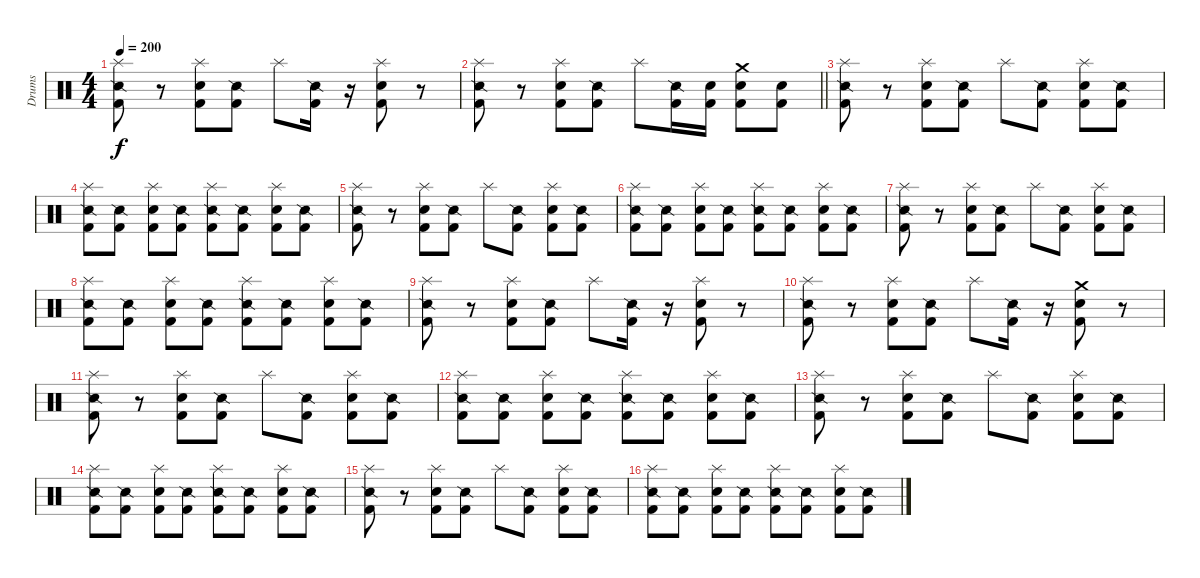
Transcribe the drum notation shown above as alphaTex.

\track ("Drums" "Drums") {instrument percussion}
\staff {score}
\articulation defaults
\ts (4 4)
\tempo 200
\clef neutral
\ks c
("Splash (hit)" "Snare (side stick) 2" "Kick (hit) 2").8{dy f} r.8 ("Splash (hit)" "Snare (hit) 2" "Kick (hit) 2").8 ("Snare (side stick) 2" "Kick (hit) 2").8 "Splash (hit)".8 ("Snare (side stick) 2" "Kick (hit) 2").16 r.16 ("Splash (hit)" "Snare (hit) 2" "Kick (hit) 2").8 r.8 |
\barLineRight lightlight
("Splash (hit)" "Snare (side stick) 2" "Kick (hit) 2").8 r.8 ("Splash (hit)" "Snare (hit) 2" "Kick (hit) 2").8 ("Snare (side stick) 2" "Kick (hit) 2").8 "Splash (hit)".8 ("Snare (side stick) 2" "Kick (hit) 2").16 ("Snare (hit) 2" "Kick (hit) 2").16 ("Crash medium (hit)" "Snare (hit) 2" "Kick (hit) 2").8 ("Snare (hit) 2" "Kick (hit) 2").8 |
("Splash (hit)" "Snare (side stick) 2" "Kick (hit) 2").8 r.8 ("Splash (hit)" "Snare (hit) 2" "Kick (hit) 2").8 ("Snare (side stick) 2" "Kick (hit) 2").8 "Splash (hit)".8 ("Snare (side stick) 2" "Kick (hit) 2").8 ("Splash (hit)" "Snare (hit) 2" "Kick (hit) 2").8 ("Snare (side stick) 2" "Kick (hit) 2").8 |
("Splash (hit)" "Snare (side stick) 2" "Kick (hit) 2").8 ("Snare (side stick) 2" "Kick (hit) 2").8 ("Splash (hit)" "Snare (hit) 2" "Kick (hit) 2").8 ("Snare (side stick) 2" "Kick (hit) 2").8 ("Splash (hit)" "Snare (side stick) 2" "Kick (hit) 2").8 ("Snare (side stick) 2" "Kick (hit) 2").8 ("Splash (hit)" "Snare (hit) 2" "Kick (hit) 2").8 ("Snare (side stick) 2" "Kick (hit) 2").8 |
("Splash (hit)" "Snare (side stick) 2" "Kick (hit) 2").8 r.8 ("Splash (hit)" "Snare (hit) 2" "Kick (hit) 2").8 ("Snare (side stick) 2" "Kick (hit) 2").8 "Splash (hit)".8 ("Snare (side stick) 2" "Kick (hit) 2").8 ("Splash (hit)" "Snare (hit) 2" "Kick (hit) 2").8 ("Snare (side stick) 2" "Kick (hit) 2").8 |
("Splash (hit)" "Snare (side stick) 2" "Kick (hit) 2").8 ("Snare (side stick) 2" "Kick (hit) 2").8 ("Splash (hit)" "Snare (hit) 2" "Kick (hit) 2").8 ("Snare (side stick) 2" "Kick (hit) 2").8 ("Splash (hit)" "Snare (side stick) 2" "Kick (hit) 2").8 ("Snare (side stick) 2" "Kick (hit) 2").8 ("Splash (hit)" "Snare (hit) 2" "Kick (hit) 2").8 ("Snare (side stick) 2" "Kick (hit) 2").8 |
("Splash (hit)" "Snare (side stick) 2" "Kick (hit) 2").8 r.8 ("Splash (hit)" "Snare (hit) 2" "Kick (hit) 2").8 ("Snare (side stick) 2" "Kick (hit) 2").8 "Splash (hit)".8 ("Snare (side stick) 2" "Kick (hit) 2").8 ("Splash (hit)" "Snare (hit) 2" "Kick (hit) 2").8 ("Snare (side stick) 2" "Kick (hit) 2").8 |
("Splash (hit)" "Snare (side stick) 2" "Kick (hit) 2").8 ("Snare (side stick) 2" "Kick (hit) 2").8 ("Splash (hit)" "Snare (hit) 2" "Kick (hit) 2").8 ("Snare (side stick) 2" "Kick (hit) 2").8 ("Splash (hit)" "Snare (side stick) 2" "Kick (hit) 2").8 ("Snare (side stick) 2" "Kick (hit) 2").8 ("Splash (hit)" "Snare (hit) 2" "Kick (hit) 2").8 ("Snare (side stick) 2" "Kick (hit) 2").8 |
("Splash (hit)" "Snare (side stick) 2" "Kick (hit) 2").8 r.8 ("Splash (hit)" "Snare (hit) 2" "Kick (hit) 2").8 ("Snare (side stick) 2" "Kick (hit) 2").8 "Splash (hit)".8 ("Snare (side stick) 2" "Kick (hit) 2").16 r.16 ("Splash (hit)" "Snare (hit) 2" "Kick (hit) 2").8 r.8 |
("Splash (hit)" "Snare (side stick) 2" "Kick (hit) 2").8 r.8 ("Splash (hit)" "Snare (hit) 2" "Kick (hit) 2").8 ("Snare (side stick) 2" "Kick (hit) 2").8 "Splash (hit)".8 ("Snare (side stick) 2" "Kick (hit) 2").16 r.16 ("Crash medium (hit)" "Snare (hit) 2" "Kick (hit) 2").8 r.8 |
("Splash (hit)" "Snare (side stick) 2" "Kick (hit) 2").8 r.8 ("Splash (hit)" "Snare (hit) 2" "Kick (hit) 2").8 ("Snare (side stick) 2" "Kick (hit) 2").8 "Splash (hit)".8 ("Snare (side stick) 2" "Kick (hit) 2").8 ("Splash (hit)" "Snare (hit) 2" "Kick (hit) 2").8 ("Snare (side stick) 2" "Kick (hit) 2").8 |
("Splash (hit)" "Snare (side stick) 2" "Kick (hit) 2").8 ("Snare (side stick) 2" "Kick (hit) 2").8 ("Splash (hit)" "Snare (hit) 2" "Kick (hit) 2").8 ("Snare (side stick) 2" "Kick (hit) 2").8 ("Splash (hit)" "Snare (side stick) 2" "Kick (hit) 2").8 ("Snare (side stick) 2" "Kick (hit) 2").8 ("Splash (hit)" "Snare (hit) 2" "Kick (hit) 2").8 ("Snare (side stick) 2" "Kick (hit) 2").8 |
("Splash (hit)" "Snare (side stick) 2" "Kick (hit) 2").8 r.8 ("Splash (hit)" "Snare (hit) 2" "Kick (hit) 2").8 ("Snare (side stick) 2" "Kick (hit) 2").8 "Splash (hit)".8 ("Snare (side stick) 2" "Kick (hit) 2").8 ("Splash (hit)" "Snare (hit) 2" "Kick (hit) 2").8 ("Snare (side stick) 2" "Kick (hit) 2").8 |
("Splash (hit)" "Snare (side stick) 2" "Kick (hit) 2").8 ("Snare (side stick) 2" "Kick (hit) 2").8 ("Splash (hit)" "Snare (hit) 2" "Kick (hit) 2").8 ("Snare (side stick) 2" "Kick (hit) 2").8 ("Splash (hit)" "Snare (side stick) 2" "Kick (hit) 2").8 ("Snare (side stick) 2" "Kick (hit) 2").8 ("Splash (hit)" "Snare (hit) 2" "Kick (hit) 2").8 ("Snare (side stick) 2" "Kick (hit) 2").8 |
("Splash (hit)" "Snare (side stick) 2" "Kick (hit) 2").8 r.8 ("Splash (hit)" "Snare (hit) 2" "Kick (hit) 2").8 ("Snare (side stick) 2" "Kick (hit) 2").8 "Splash (hit)".8 ("Snare (side stick) 2" "Kick (hit) 2").8 ("Splash (hit)" "Snare (hit) 2" "Kick (hit) 2").8 ("Snare (side stick) 2" "Kick (hit) 2").8 |
("Splash (hit)" "Snare (side stick) 2" "Kick (hit) 2").8 ("Snare (side stick) 2" "Kick (hit) 2").8 ("Splash (hit)" "Snare (hit) 2" "Kick (hit) 2").8 ("Snare (side stick) 2" "Kick (hit) 2").8 ("Splash (hit)" "Snare (side stick) 2" "Kick (hit) 2").8 ("Snare (side stick) 2" "Kick (hit) 2").8 ("Splash (hit)" "Snare (hit) 2" "Kick (hit) 2").8 ("Snare (side stick) 2" "Kick (hit) 2").8
